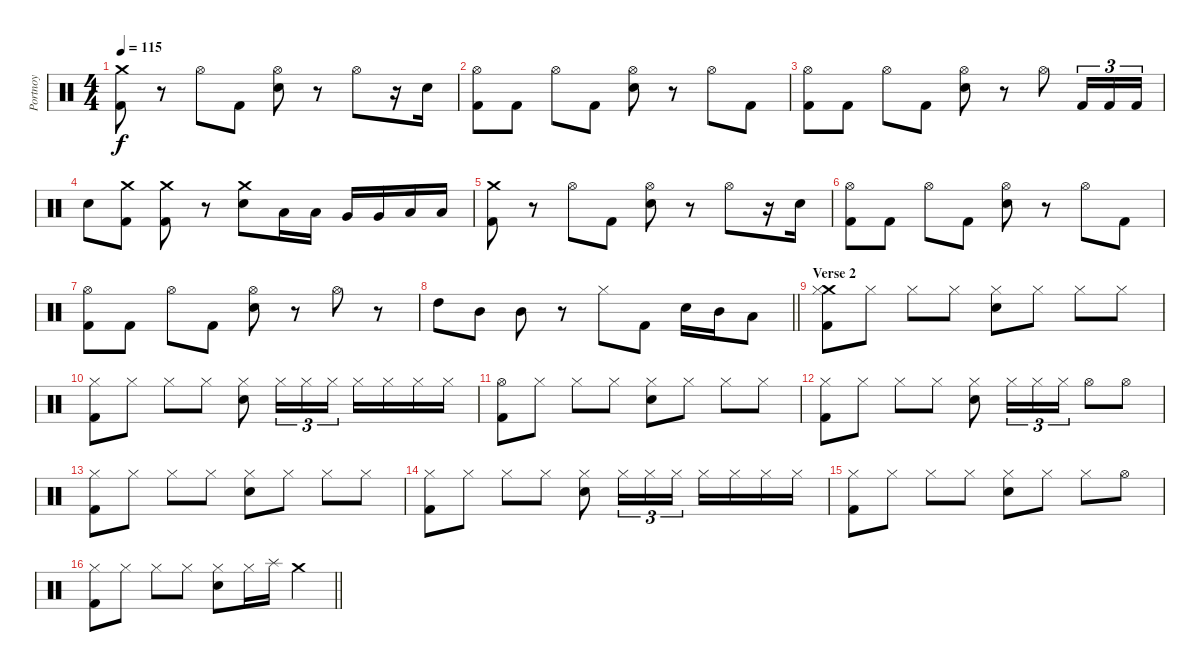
\track ("Portnoy" "Portnoy") {instrument percussion}
\staff {score}
\articulation defaults
\ts (4 4)
\tempo 115
\clef neutral
\ks c
("Crash medium (hit)" "Kick (hit) 2").8{dy f} r.8 "Hi-Hat (open)".8 "Kick (hit) 2".8 ("Hi-Hat (open)" "Snare (hit) 2").8 r.8 "Hi-Hat (open)".8 r.16 "Snare (hit) 2".16 |
("Hi-Hat (open)" "Kick (hit) 2").8 "Kick (hit) 2".8 "Hi-Hat (open)".8 "Kick (hit) 2".8 ("Hi-Hat (open)" "Snare (hit) 2").8 r.8 "Hi-Hat (open)".8 "Kick (hit) 2".8 |
("Hi-Hat (open)" "Kick (hit) 2").8 "Kick (hit) 2".8 "Hi-Hat (open)".8 "Kick (hit) 2".8 ("Hi-Hat (open)" "Snare (hit) 2").8 r.8 "Hi-Hat (open)".8 "Kick (hit) 2".16{tu (3 2)} "Kick (hit) 2".16{tu (3 2)} "Kick (hit) 2".16{tu (3 2)} |
"Snare (hit) 2".8 ("Crash medium (hit)" "Kick (hit) 2").8 ("Crash medium (hit)" "Kick (hit) 2").8 r.8 ("Crash medium (hit)" "Snare (hit) 2").8 "Low Tom (hit)".16 "Low Tom (hit)".16 "Very Low Tom (hit)".16 "Very Low Tom (hit)".16 "Low Floor Tom (hit)".16 "Low Floor Tom (hit)".16 |
("Crash medium (hit)" "Kick (hit) 2").8 r.8 "Hi-Hat (open)".8 "Kick (hit) 2".8 ("Hi-Hat (open)" "Snare (hit) 2").8 r.8 "Hi-Hat (open)".8 r.16 "Snare (hit) 2".16 |
("Hi-Hat (open)" "Kick (hit) 2").8 "Kick (hit) 2".8 "Hi-Hat (open)".8 "Kick (hit) 2".8 ("Hi-Hat (open)" "Snare (hit) 2").8 r.8 "Hi-Hat (open)".8 "Kick (hit) 2".8 |
("Hi-Hat (open)" "Kick (hit) 2").8 "Kick (hit) 2".8 "Hi-Hat (open)".8 "Kick (hit) 2".8 ("Hi-Hat (open)" "Snare (hit) 2").8 r.8 "Hi-Hat (open)".8 r.8 |
\barLineRight lightlight "High Tom (hit)".8 "Mid Tom (hit)".8 "Mid Tom (hit)".8
r.8 "Hi-Hat (closed)".8 "Kick (hit) 2".8 "Snare (hit) 2".16 "Mid Tom (hit)".16 "Low Floor Tom (hit)".8 |
\section ("" "Verse 2")
("Crash medium (hit)" "Hi-Hat (closed)" "Kick (hit) 2").8 "Hi-Hat (closed)".8 "Hi-Hat (closed)".8 "Hi-Hat (closed)".8 ("Hi-Hat (closed)" "Snare (hit) 2").8 "Hi-Hat (closed)".8 "Hi-Hat (closed)".8 "Hi-Hat (closed)".8 |
("Hi-Hat (closed)" "Kick (hit) 2").8 "Hi-Hat (closed)".8 "Hi-Hat (closed)".8 "Hi-Hat (closed)".8 ("Hi-Hat (closed)" "Snare (hit) 2").8 "Hi-Hat (closed)".16{tu (3 2)} "Hi-Hat (closed)".16{tu (3 2)} "Hi-Hat (closed)".16{tu (3 2)} "Hi-Hat (closed)".16 "Hi-Hat (closed)".16 "Hi-Hat (closed)".16 "Hi-Hat (closed)".16 |
("Hi-Hat (open)" "Kick (hit) 2").8 "Hi-Hat (closed)".8 "Hi-Hat (closed)".8 "Hi-Hat (closed)".8 ("Hi-Hat (closed)" "Snare (hit) 2").8 "Hi-Hat (closed)".8 "Hi-Hat (closed)".8 "Hi-Hat (closed)".8 |
("Hi-Hat (closed)" "Kick (hit) 2").8 "Hi-Hat (closed)".8 "Hi-Hat (closed)".8 "Hi-Hat (closed)".8 ("Hi-Hat (closed)" "Snare (hit) 2").8 "Hi-Hat (closed)".16{tu (3 2)} "Hi-Hat (closed)".16{tu (3 2)} "Hi-Hat (closed)".16{tu (3 2)} "Hi-Hat (open)".8 "Hi-Hat (open)".8 |
("Hi-Hat (closed)" "Kick (hit) 2").8 "Hi-Hat (closed)".8 "Hi-Hat (closed)".8 "Hi-Hat (closed)".8 ("Hi-Hat (closed)" "Snare (hit) 2").8 "Hi-Hat (closed)".8 "Hi-Hat (closed)".8 "Hi-Hat (closed)".8 |
("Hi-Hat (closed)" "Kick (hit) 2").8 "Hi-Hat (closed)".8 "Hi-Hat (closed)".8 "Hi-Hat (closed)".8 ("Hi-Hat (closed)" "Snare (hit) 2").8 "Hi-Hat (closed)".16{tu (3 2)} "Hi-Hat (closed)".16{tu (3 2)} "Hi-Hat (closed)".16{tu (3 2)} "Hi-Hat (closed)".16 "Hi-Hat (closed)".16 "Hi-Hat (closed)".16 "Hi-Hat (closed)".16 |
("Hi-Hat (closed)" "Kick (hit) 2").8 "Hi-Hat (closed)".8 "Hi-Hat (closed)".8 "Hi-Hat (closed)".8 ("Hi-Hat (closed)" "Snare (hit) 2").8 "Hi-Hat (closed)".8 "Hi-Hat (closed)".8 "Hi-Hat (open)".8 |
\barLineRight lightlight
("Hi-Hat (closed)" "Kick (hit) 2").8 "Hi-Hat (closed)".8 "Hi-Hat (closed)".8 "Hi-Hat (closed)".8 ("Hi-Hat (closed)" "Snare (hit) 2").8 "Hi-Hat (closed)".16 "Splash (hit)".16 "Crash medium (hit)".4
